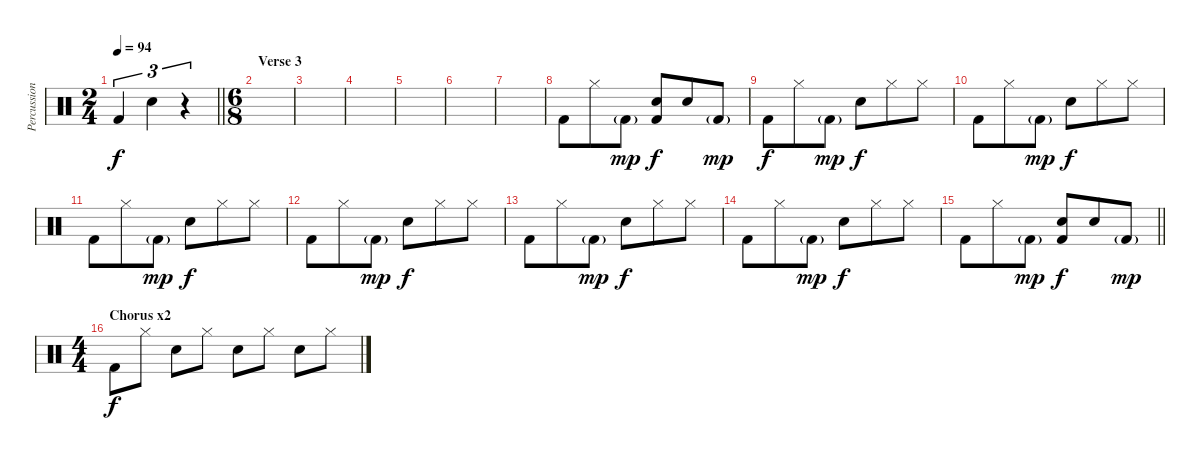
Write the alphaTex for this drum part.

\track ("Percussion" "Percussion") {instrument percussion}
\staff {score}
\articulation defaults
\ts (2 4)
\tempo 94
\clef neutral
\barLineRight lightlight
\ks c "Kick (hit) 2".4{tu (3 2) dy f} "Snare (hit) 2".4{tu (3 2)}
r.4{tu (3 2)} |
\ts (6 8)
\section ("" "Verse 3")
|
|
|
|
|
|
"Kick (hit) 2".8 "Hi-Hat (closed)".8 "Kick (hit) 2"{g}.8{dy mp} ("Snare (hit) 2" "Kick (hit) 2").8{dy f} "Snare (hit) 2".8 "Kick (hit) 2"{g}.8{dy mp} |
"Kick (hit) 2".8{dy f} "Hi-Hat (closed)".8 "Kick (hit) 2"{g}.8{dy mp} "Snare (hit) 2".8{dy f} "Hi-Hat (closed)".8 "Hi-Hat (closed)".8 |
"Kick (hit) 2".8 "Hi-Hat (closed)".8 "Kick (hit) 2"{g}.8{dy mp} "Snare (hit) 2".8{dy f} "Hi-Hat (closed)".8 "Hi-Hat (closed)".8 |
"Kick (hit) 2".8 "Hi-Hat (closed)".8 "Kick (hit) 2"{g}.8{dy mp} "Snare (hit) 2".8{dy f} "Hi-Hat (closed)".8 "Hi-Hat (closed)".8 |
"Kick (hit) 2".8 "Hi-Hat (closed)".8 "Kick (hit) 2"{g}.8{dy mp} "Snare (hit) 2".8{dy f} "Hi-Hat (closed)".8 "Hi-Hat (closed)".8 |
"Kick (hit) 2".8 "Hi-Hat (closed)".8 "Kick (hit) 2"{g}.8{dy mp} "Snare (hit) 2".8{dy f} "Hi-Hat (closed)".8 "Hi-Hat (closed)".8 |
"Kick (hit) 2".8 "Hi-Hat (closed)".8 "Kick (hit) 2"{g}.8{dy mp} "Snare (hit) 2".8{dy f} "Hi-Hat (closed)".8 "Hi-Hat (closed)".8 |
\barLineRight lightlight "Kick (hit) 2".8 "Hi-Hat (closed)".8 "Kick (hit) 2"{g}.8{dy mp}
("Snare (hit) 2" "Kick (hit) 2").8{dy f} "Snare (hit) 2".8 "Kick (hit) 2"{g}.8{dy mp} |
\ts (4 4)
\section ("" "Chorus x2")
"Kick (hit) 2".8{dy f} "Hi-Hat (closed)".8 "Snare (hit) 2".8 "Hi-Hat (closed)".8 "Snare (hit) 2".8 "Hi-Hat (closed)".8 "Snare (hit) 2".8 "Hi-Hat (closed)".8
